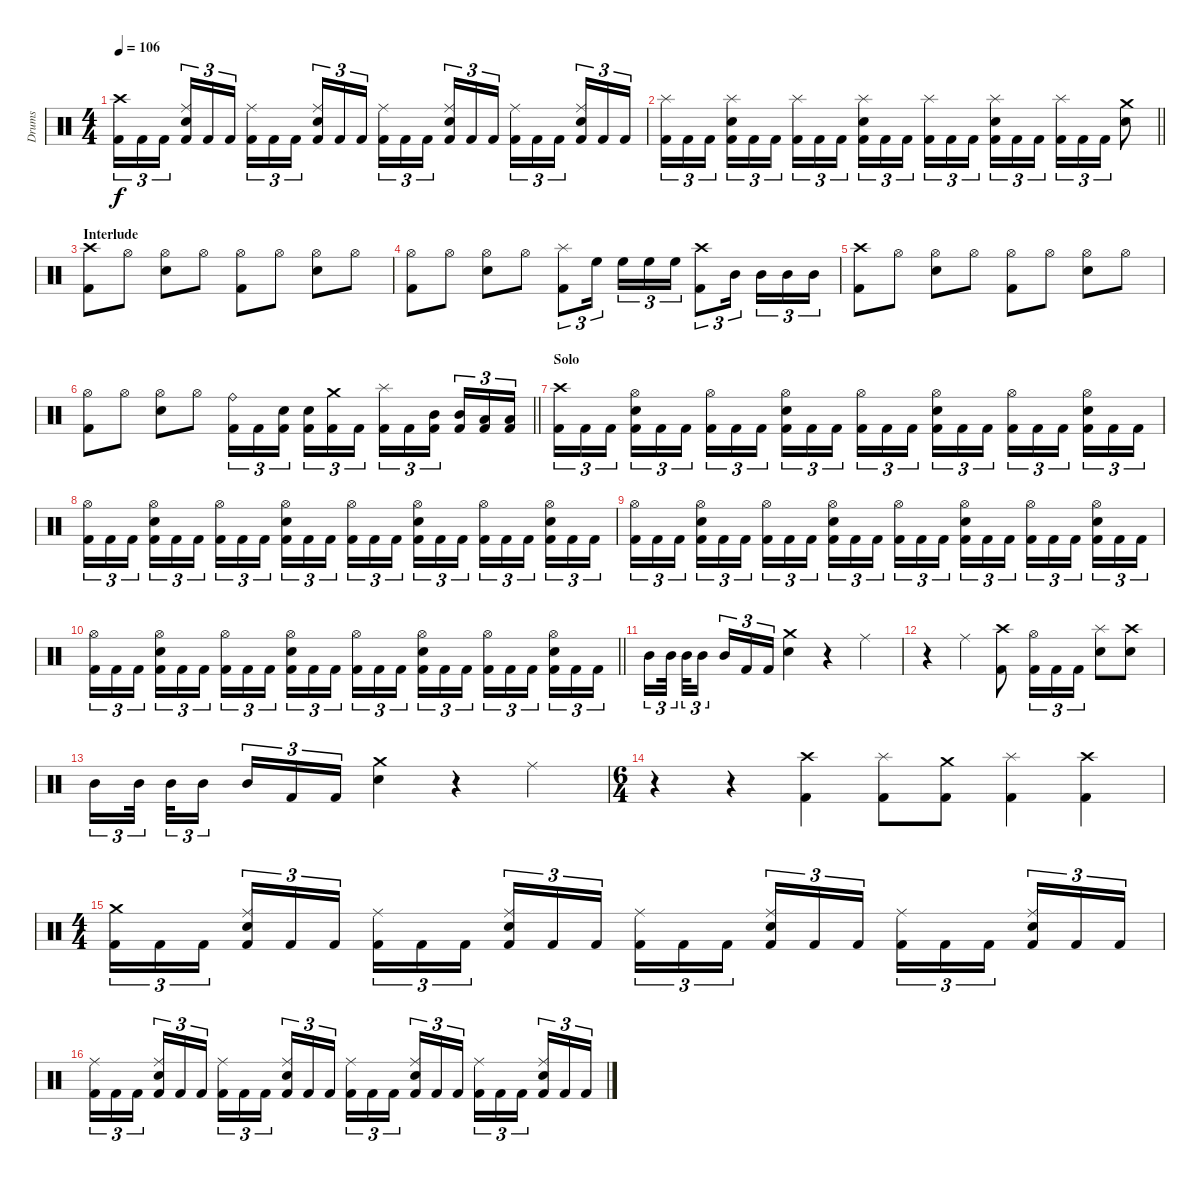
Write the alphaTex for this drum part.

\track ("Drums" "Drums") {instrument percussion}
\staff {score}
\articulation defaults
\ts (4 4)
\tempo 106
\clef neutral
\ks c
("Crash high (hit)" "Kick (hit) 2").16{tu (3 2) dy f} "Kick (hit) 2".16{tu (3 2)} "Kick (hit) 2".16{tu (3 2)} ("Ride (middle)" "Electric Snare (hit)" "Kick (hit) 2").16{tu (3 2)} "Kick (hit) 2".16{tu (3 2)} "Kick (hit) 2".16{tu (3 2)} ("Ride (middle)" "Kick (hit) 2").16{tu (3 2)} "Kick (hit) 2".16{tu (3 2)} "Kick (hit) 2".16{tu (3 2)} ("Ride (middle)" "Electric Snare (hit)" "Kick (hit) 2").16{tu (3 2)} "Kick (hit) 2".16{tu (3 2)} "Kick (hit) 2".16{tu (3 2)} ("Ride (middle)" "Kick (hit) 2").16{tu (3 2)} "Kick (hit) 2".16{tu (3 2)} "Kick (hit) 2".16{tu (3 2)} ("Ride (middle)" "Electric Snare (hit)" "Kick (hit) 2").16{tu (3 2)} "Kick (hit) 2".16{tu (3 2)} "Kick (hit) 2".16{tu (3 2)} ("Ride (middle)" "Kick (hit) 2").16{tu (3 2)} "Kick (hit) 2".16{tu (3 2)} "Kick (hit) 2".16{tu (3 2)} ("Ride (middle)" "Electric Snare (hit)" "Kick (hit) 2").16{tu (3 2)} "Kick (hit) 2".16{tu (3 2)} "Kick (hit) 2".16{tu (3 2)} |
\barLineRight lightlight
("Splash (hit)" "Kick (hit) 2").16{tu (3 2)} "Kick (hit) 2".16{tu (3 2)} "Kick (hit) 2".16{tu (3 2)} ("Splash (hit)" "Electric Snare (hit)" "Kick (hit) 2").16{tu (3 2)} "Kick (hit) 2".16{tu (3 2)} "Kick (hit) 2".16{tu (3 2)} ("Splash (hit)" "Kick (hit) 2").16{tu (3 2)} "Kick (hit) 2".16{tu (3 2)} "Kick (hit) 2".16{tu (3 2)} ("Splash (hit)" "Electric Snare (hit)" "Kick (hit) 2").16{tu (3 2)} "Kick (hit) 2".16{tu (3 2)} "Kick (hit) 2".16{tu (3 2)} ("Splash (hit)" "Kick (hit) 2").16{tu (3 2)} "Kick (hit) 2".16{tu (3 2)} "Kick (hit) 2".16{tu (3 2)} ("Splash (hit)" "Electric Snare (hit)" "Kick (hit) 2").16{tu (3 2)} "Kick (hit) 2".16{tu (3 2)} "Kick (hit) 2".16{tu (3 2)} ("Splash (hit)" "Kick (hit) 2").16{tu (3 2)} "Kick (hit) 2".16{tu (3 2)} "Kick (hit) 2".16{tu (3 2)} ("Crash medium (hit)" "Electric Snare (hit)").8 |
\section ("" "Interlude")
("Crash high (hit)" "Kick (hit) 2").8 "Hi-Hat (open)".8 ("Hi-Hat (open)" "Electric Snare (hit)").8 "Hi-Hat (open)".8 ("Hi-Hat (open)" "Kick (hit) 2").8 "Hi-Hat (open)".8 ("Hi-Hat (open)" "Electric Snare (hit)").8 "Hi-Hat (open)".8 |
("Hi-Hat (open)" "Kick (hit) 2").8 "Hi-Hat (open)".8 ("Hi-Hat (open)" "Electric Snare (hit)").8 "Hi-Hat (open)".8 ("Splash (hit)" "Kick (hit) 2").8{tu (3 2)} "High Floor Tom (hit)".16{tu (3 2)} "High Floor Tom (hit)".16{tu (3 2)} "High Floor Tom (hit)".16{tu (3 2)} "High Floor Tom (hit)".16{tu (3 2)} ("Crash high (hit)" "Kick (hit) 2").8{tu (3 2)} "Mid Tom (hit)".16{tu (3 2)} "Mid Tom (hit)".16{tu (3 2)} "Mid Tom (hit)".16{tu (3 2)} "Mid Tom (hit)".16{tu (3 2)} |
("Crash high (hit)" "Kick (hit) 2").8 "Hi-Hat (open)".8 ("Hi-Hat (open)" "Electric Snare (hit)").8 "Hi-Hat (open)".8 ("Hi-Hat (open)" "Kick (hit) 2").8 "Hi-Hat (open)".8 ("Hi-Hat (open)" "Electric Snare (hit)").8 "Hi-Hat (open)".8 |
\barLineRight lightlight
("Hi-Hat (open)" "Kick (hit) 2").8 "Hi-Hat (open)".8 ("Hi-Hat (open)" "Electric Snare (hit)").8 "Hi-Hat (open)".8 ("Ride (bell)" "Kick (hit) 2").16{tu (3 2)} "Kick (hit) 2".16{tu (3 2)} ("Electric Snare (hit)" "Kick (hit) 2").16{tu (3 2)} ("Electric Snare (hit)" "Kick (hit) 2").16{tu (3 2)} ("Crash medium (hit)" "Kick (hit) 2").16{tu (3 2)} "Kick (hit) 2".16{tu (3 2)} ("Splash (hit)" "Kick (hit) 2").16{tu (3 2)} "Kick (hit) 2".16{tu (3 2)} ("Mid Tom (hit)" "Kick (hit) 2").16{tu (3 2)} ("Mid Tom (hit)" "Kick (hit) 2").16{tu (3 2)} ("Low Tom (hit)" "Kick (hit) 2").16{tu (3 2)} ("Low Tom (hit)" "Kick (hit) 2").16{tu (3 2)} |
\section ("" "Solo")
("Crash high (hit)" "Kick (hit) 2").16{tu (3 2)} "Kick (hit) 2".16{tu (3 2)} "Kick (hit) 2".16{tu (3 2)} ("Hi-Hat (open)" "Electric Snare (hit)" "Kick (hit) 2").16{tu (3 2)} "Kick (hit) 2".16{tu (3 2)} "Kick (hit) 2".16{tu (3 2)} ("Hi-Hat (open)" "Kick (hit) 2").16{tu (3 2)} "Kick (hit) 2".16{tu (3 2)} "Kick (hit) 2".16{tu (3 2)} ("Hi-Hat (open)" "Electric Snare (hit)" "Kick (hit) 2").16{tu (3 2)} "Kick (hit) 2".16{tu (3 2)} "Kick (hit) 2".16{tu (3 2)} ("Hi-Hat (open)" "Kick (hit) 2").16{tu (3 2)} "Kick (hit) 2".16{tu (3 2)} "Kick (hit) 2".16{tu (3 2)} ("Hi-Hat (open)" "Electric Snare (hit)" "Kick (hit) 2").16{tu (3 2)} "Kick (hit) 2".16{tu (3 2)} "Kick (hit) 2".16{tu (3 2)} ("Hi-Hat (open)" "Kick (hit) 2").16{tu (3 2)} "Kick (hit) 2".16{tu (3 2)} "Kick (hit) 2".16{tu (3 2)} ("Hi-Hat (open)" "Electric Snare (hit)" "Kick (hit) 2").16{tu (3 2)} "Kick (hit) 2".16{tu (3 2)} "Kick (hit) 2".16{tu (3 2)} |
("Hi-Hat (open)" "Kick (hit) 2").16{tu (3 2)} "Kick (hit) 2".16{tu (3 2)} "Kick (hit) 2".16{tu (3 2)} ("Hi-Hat (open)" "Electric Snare (hit)" "Kick (hit) 2").16{tu (3 2)} "Kick (hit) 2".16{tu (3 2)} "Kick (hit) 2".16{tu (3 2)} ("Hi-Hat (open)" "Kick (hit) 2").16{tu (3 2)} "Kick (hit) 2".16{tu (3 2)} "Kick (hit) 2".16{tu (3 2)} ("Hi-Hat (open)" "Electric Snare (hit)" "Kick (hit) 2").16{tu (3 2)} "Kick (hit) 2".16{tu (3 2)} "Kick (hit) 2".16{tu (3 2)} ("Hi-Hat (open)" "Kick (hit) 2").16{tu (3 2)} "Kick (hit) 2".16{tu (3 2)} "Kick (hit) 2".16{tu (3 2)} ("Hi-Hat (open)" "Electric Snare (hit)" "Kick (hit) 2").16{tu (3 2)} "Kick (hit) 2".16{tu (3 2)} "Kick (hit) 2".16{tu (3 2)} ("Hi-Hat (open)" "Kick (hit) 2").16{tu (3 2)} "Kick (hit) 2".16{tu (3 2)} "Kick (hit) 2".16{tu (3 2)} ("Hi-Hat (open)" "Electric Snare (hit)" "Kick (hit) 2").16{tu (3 2)} "Kick (hit) 2".16{tu (3 2)} "Kick (hit) 2".16{tu (3 2)} |
("Hi-Hat (open)" "Kick (hit) 2").16{tu (3 2)} "Kick (hit) 2".16{tu (3 2)} "Kick (hit) 2".16{tu (3 2)} ("Hi-Hat (open)" "Electric Snare (hit)" "Kick (hit) 2").16{tu (3 2)} "Kick (hit) 2".16{tu (3 2)} "Kick (hit) 2".16{tu (3 2)} ("Hi-Hat (open)" "Kick (hit) 2").16{tu (3 2)} "Kick (hit) 2".16{tu (3 2)} "Kick (hit) 2".16{tu (3 2)} ("Hi-Hat (open)" "Electric Snare (hit)" "Kick (hit) 2").16{tu (3 2)} "Kick (hit) 2".16{tu (3 2)} "Kick (hit) 2".16{tu (3 2)} ("Hi-Hat (open)" "Kick (hit) 2").16{tu (3 2)} "Kick (hit) 2".16{tu (3 2)} "Kick (hit) 2".16{tu (3 2)} ("Hi-Hat (open)" "Electric Snare (hit)" "Kick (hit) 2").16{tu (3 2)} "Kick (hit) 2".16{tu (3 2)} "Kick (hit) 2".16{tu (3 2)} ("Hi-Hat (open)" "Kick (hit) 2").16{tu (3 2)} "Kick (hit) 2".16{tu (3 2)} "Kick (hit) 2".16{tu (3 2)} ("Hi-Hat (open)" "Electric Snare (hit)" "Kick (hit) 2").16{tu (3 2)} "Kick (hit) 2".16{tu (3 2)} "Kick (hit) 2".16{tu (3 2)} |
\barLineRight lightlight
("Hi-Hat (open)" "Kick (hit) 2").16{tu (3 2)} "Kick (hit) 2".16{tu (3 2)} "Kick (hit) 2".16{tu (3 2)} ("Hi-Hat (open)" "Electric Snare (hit)" "Kick (hit) 2").16{tu (3 2)} "Kick (hit) 2".16{tu (3 2)} "Kick (hit) 2".16{tu (3 2)} ("Hi-Hat (open)" "Kick (hit) 2").16{tu (3 2)} "Kick (hit) 2".16{tu (3 2)} "Kick (hit) 2".16{tu (3 2)} ("Hi-Hat (open)" "Electric Snare (hit)" "Kick (hit) 2").16{tu (3 2)} "Kick (hit) 2".16{tu (3 2)} "Kick (hit) 2".16{tu (3 2)} ("Hi-Hat (open)" "Kick (hit) 2").16{tu (3 2)} "Kick (hit) 2".16{tu (3 2)} "Kick (hit) 2".16{tu (3 2)} ("Hi-Hat (open)" "Electric Snare (hit)" "Kick (hit) 2").16{tu (3 2)} "Kick (hit) 2".16{tu (3 2)} "Kick (hit) 2".16{tu (3 2)} ("Hi-Hat (open)" "Kick (hit) 2").16{tu (3 2)} "Kick (hit) 2".16{tu (3 2)} "Kick (hit) 2".16{tu (3 2)} ("Hi-Hat (open)" "Electric Snare (hit)" "Kick (hit) 2").16{tu (3 2)} "Kick (hit) 2".16{tu (3 2)} "Kick (hit) 2".16{tu (3 2)} |
\section ("" "")
"Mid Tom (hit)".16{tu (3 2)} "Mid Tom (hit)".32{tu (3 2)} "Mid Tom (hit)".32{tu (3 2)} "Mid Tom (hit)".16{tu (3 2)} "Mid Tom (hit)".16{tu (3 2)} "Kick (hit) 2".16{tu (3 2)} "Kick (hit) 2".16{tu (3 2)} ("Crash medium (hit)" "Electric Snare (hit)").4 r.4 "Ride (middle)".4 |
r.4 "Ride (middle)".4 ("Crash high (hit)" "Kick (hit) 2").8 ("Hi-Hat (open)" "Kick (hit) 2").16{tu (3 2)} "Kick (hit) 2".16{tu (3 2)} "Kick (hit) 2".16{tu (3 2)} ("Splash (hit)" "Electric Snare (hit)").8 ("Crash high (hit)" "Electric Snare (hit)").8 |
"Mid Tom (hit)".16{tu (3 2)} "Mid Tom (hit)".32{tu (3 2)} "Mid Tom (hit)".32{tu (3 2)} "Mid Tom (hit)".16{tu (3 2)} "Mid Tom (hit)".16{tu (3 2)} "Kick (hit) 2".16{tu (3 2)} "Kick (hit) 2".16{tu (3 2)} ("Crash medium (hit)" "Electric Snare (hit)").4 r.4 "Ride (middle)".4 |
\ts (6 4)
r.4 r.4 ("Crash high (hit)" "Kick (hit) 2").4 ("Splash (hit)" "Kick (hit) 2").8 ("Crash medium (hit)" "Kick (hit) 2").8 ("Splash (hit)" "Kick (hit) 2").4 ("Crash high (hit)" "Kick (hit) 2").4 |
\ts (4 4)
("Crash medium (hit)" "Kick (hit) 2").16{tu (3 2)} "Kick (hit) 2".16{tu (3 2)} "Kick (hit) 2".16{tu (3 2)} ("Ride (middle)" "Electric Snare (hit)" "Kick (hit) 2").16{tu (3 2)} "Kick (hit) 2".16{tu (3 2)} "Kick (hit) 2".16{tu (3 2)} ("Ride (middle)" "Kick (hit) 2").16{tu (3 2)} "Kick (hit) 2".16{tu (3 2)} "Kick (hit) 2".16{tu (3 2)} ("Ride (middle)" "Electric Snare (hit)" "Kick (hit) 2").16{tu (3 2)} "Kick (hit) 2".16{tu (3 2)} "Kick (hit) 2".16{tu (3 2)} ("Ride (middle)" "Kick (hit) 2").16{tu (3 2)} "Kick (hit) 2".16{tu (3 2)} "Kick (hit) 2".16{tu (3 2)} ("Ride (middle)" "Electric Snare (hit)" "Kick (hit) 2").16{tu (3 2)} "Kick (hit) 2".16{tu (3 2)} "Kick (hit) 2".16{tu (3 2)} ("Ride (middle)" "Kick (hit) 2").16{tu (3 2)} "Kick (hit) 2".16{tu (3 2)} "Kick (hit) 2".16{tu (3 2)} ("Ride (middle)" "Electric Snare (hit)" "Kick (hit) 2").16{tu (3 2)} "Kick (hit) 2".16{tu (3 2)} "Kick (hit) 2".16{tu (3 2)} |
("Ride (middle)" "Kick (hit) 2").16{tu (3 2)} "Kick (hit) 2".16{tu (3 2)} "Kick (hit) 2".16{tu (3 2)} ("Ride (middle)" "Electric Snare (hit)" "Kick (hit) 2").16{tu (3 2)} "Kick (hit) 2".16{tu (3 2)} "Kick (hit) 2".16{tu (3 2)} ("Ride (middle)" "Kick (hit) 2").16{tu (3 2)} "Kick (hit) 2".16{tu (3 2)} "Kick (hit) 2".16{tu (3 2)} ("Ride (middle)" "Electric Snare (hit)" "Kick (hit) 2").16{tu (3 2)} "Kick (hit) 2".16{tu (3 2)} "Kick (hit) 2".16{tu (3 2)} ("Ride (middle)" "Kick (hit) 2").16{tu (3 2)} "Kick (hit) 2".16{tu (3 2)} "Kick (hit) 2".16{tu (3 2)} ("Ride (middle)" "Electric Snare (hit)" "Kick (hit) 2").16{tu (3 2)} "Kick (hit) 2".16{tu (3 2)} "Kick (hit) 2".16{tu (3 2)} ("Ride (middle)" "Kick (hit) 2").16{tu (3 2)} "Kick (hit) 2".16{tu (3 2)} "Kick (hit) 2".16{tu (3 2)} ("Ride (middle)" "Electric Snare (hit)" "Kick (hit) 2").16{tu (3 2)} "Kick (hit) 2".16{tu (3 2)} "Kick (hit) 2".16{tu (3 2)}
